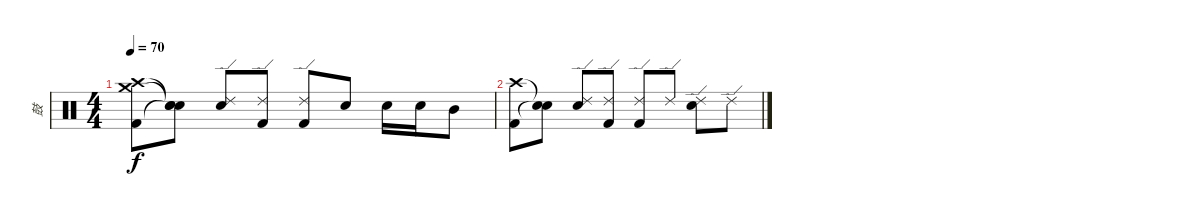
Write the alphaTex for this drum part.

\track ("鼓" "鼓") {instrument percussion}
\staff {score}
\articulation defaults
\ts (4 4)
\tempo 70
\clef neutral
\ks c
("Crash high (hit)" "Crash medium (hit)" "Kick (hit) 2").8{dy f} ("Snare (hit)"{t} "Snare (hit)"{t} "Snare (hit)"{t}).8 ("Ride (edge) 2" "Electric Snare (hit)").8 ("Ride (edge) 2" "Kick (hit) 2").8 ("Ride (edge) 2" "Kick (hit) 2").8 "Electric Snare (hit)".8 "Electric Snare (hit)".16 "Electric Snare (hit)".16 "Mid Tom (hit)".8 |
("Crash high (hit)" "Kick (hit) 2").8 ("Snare (hit)"{t} "Snare (hit)"{t}).8 ("Ride (edge) 2" "Electric Snare (hit)").8 ("Ride (edge) 2" "Kick (hit) 2").8 ("Ride (edge) 2" "Kick (hit) 2").8 "Ride (edge) 2".8 ("Ride (edge) 2" "Electric Snare (hit)").8 "Ride (edge) 2".8
